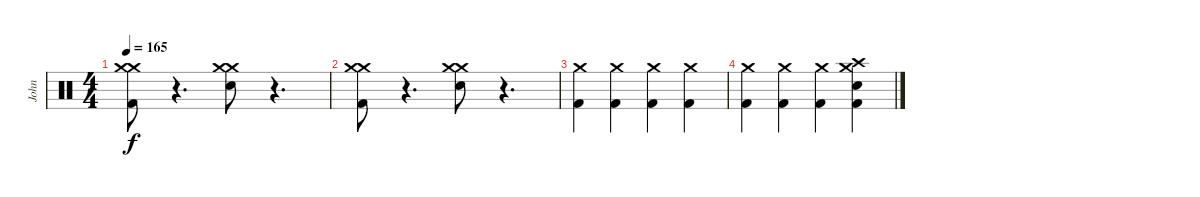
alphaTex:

\track ("John" "John") {instrument percussion}
\staff {score}
\articulation defaults
\ts (4 4)
\tempo 165
\clef neutral
\ks c
("Crash medium (hit)" "Crash medium (hit)" "Kick (hit) 2").8{dy f} r.4{d} ("Crash medium (hit)" "Crash medium (hit)" "Electric Snare (hit)").8 r.4{d} |
("Crash medium (hit)" "Crash medium (hit)" "Kick (hit) 2").8 r.4{d} ("Crash medium (hit)" "Crash medium (hit)" "Electric Snare (hit)").8 r.4{d} |
("Crash medium (hit)" "Kick (hit) 2").4 ("Crash medium (hit)" "Kick (hit) 2").4 ("Crash medium (hit)" "Kick (hit) 2").4 ("Crash medium (hit)" "Kick (hit) 2").4 |
("Crash medium (hit)" "Kick (hit) 2").4 ("Crash medium (hit)" "Kick (hit) 2").4 ("Crash medium (hit)" "Kick (hit) 2").4 ("Crash medium (hit)" "Electric Snare (hit)" "Crash high (hit)" "Kick (hit) 2").4
